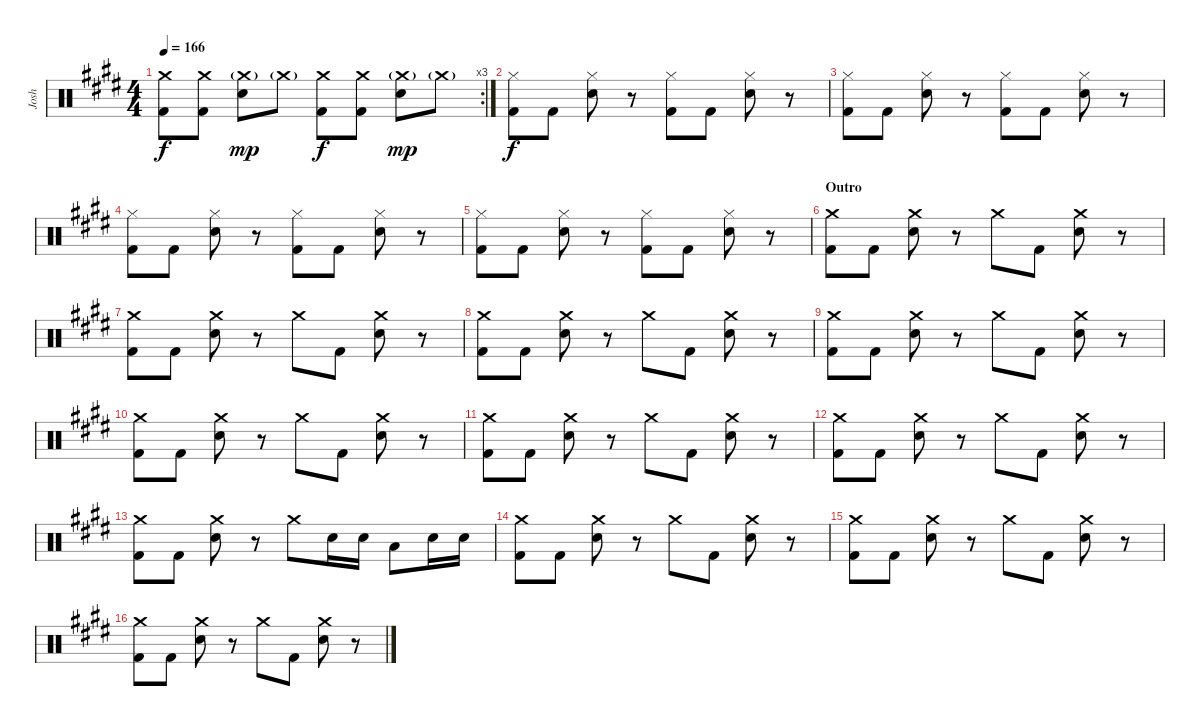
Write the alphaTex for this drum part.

\track ("Josh" "Josh") {instrument percussion}
\staff {score}
\articulation defaults
\rc 3
\ts (4 4)
\tempo 166
\clef neutral
\ks e
("Crash medium (hit)" "Kick (hit) 2").8{dy f} ("Crash medium (hit)" "Kick (hit) 2").8 ("Crash medium (hit)"{g} "Electric Snare (hit)").8{dy mp} "Crash medium (hit)"{g}.8 ("Crash medium (hit)" "Kick (hit) 2").8{dy f} ("Crash medium (hit)" "Kick (hit) 2").8 ("Crash medium (hit)"{g} "Electric Snare (hit)").8{dy mp} "Crash medium (hit)"{g}.8 |
("Hi-Hat (closed)" "Kick (hit) 2").8{dy f} "Kick (hit) 2".8 ("Hi-Hat (closed)" "Electric Snare (hit)").8 r.8 ("Hi-Hat (closed)" "Kick (hit) 2").8 "Kick (hit) 2".8 ("Hi-Hat (closed)" "Electric Snare (hit)").8 r.8 |
("Hi-Hat (closed)" "Kick (hit) 2").8 "Kick (hit) 2".8 ("Hi-Hat (closed)" "Electric Snare (hit)").8 r.8 ("Hi-Hat (closed)" "Kick (hit) 2").8 "Kick (hit) 2".8 ("Hi-Hat (closed)" "Electric Snare (hit)").8 r.8 |
("Hi-Hat (closed)" "Kick (hit) 2").8 "Kick (hit) 2".8 ("Hi-Hat (closed)" "Electric Snare (hit)").8 r.8 ("Hi-Hat (closed)" "Kick (hit) 2").8 "Kick (hit) 2".8 ("Hi-Hat (closed)" "Electric Snare (hit)").8 r.8 |
("Hi-Hat (closed)" "Kick (hit) 2").8 "Kick (hit) 2".8 ("Hi-Hat (closed)" "Electric Snare (hit)").8 r.8 ("Hi-Hat (closed)" "Kick (hit) 2").8 "Kick (hit) 2".8 ("Hi-Hat (closed)" "Electric Snare (hit)").8 r.8 |
\section ("" "Outro")
("Crash medium (hit)" "Kick (hit) 2").8 "Kick (hit) 2".8 ("Crash medium (hit)" "Electric Snare (hit)").8 r.8 "Crash medium (hit)".8 "Kick (hit) 2".8 ("Crash medium (hit)" "Electric Snare (hit)").8 r.8 |
("Crash medium (hit)" "Kick (hit) 2").8 "Kick (hit) 2".8 ("Crash medium (hit)" "Electric Snare (hit)").8 r.8 "Crash medium (hit)".8 "Kick (hit) 2".8 ("Crash medium (hit)" "Electric Snare (hit)").8 r.8 |
("Crash medium (hit)" "Kick (hit) 2").8 "Kick (hit) 2".8 ("Crash medium (hit)" "Electric Snare (hit)").8 r.8 "Crash medium (hit)".8 "Kick (hit) 2".8 ("Crash medium (hit)" "Electric Snare (hit)").8 r.8 |
("Crash medium (hit)" "Kick (hit) 2").8 "Kick (hit) 2".8 ("Crash medium (hit)" "Electric Snare (hit)").8 r.8 "Crash medium (hit)".8 "Kick (hit) 2".8 ("Crash medium (hit)" "Electric Snare (hit)").8 r.8 |
("Crash medium (hit)" "Kick (hit) 2").8 "Kick (hit) 2".8 ("Crash medium (hit)" "Electric Snare (hit)").8 r.8 "Crash medium (hit)".8 "Kick (hit) 2".8 ("Crash medium (hit)" "Electric Snare (hit)").8 r.8 |
("Crash medium (hit)" "Kick (hit) 2").8 "Kick (hit) 2".8 ("Crash medium (hit)" "Electric Snare (hit)").8 r.8 "Crash medium (hit)".8 "Kick (hit) 2".8 ("Crash medium (hit)" "Electric Snare (hit)").8 r.8 |
("Crash medium (hit)" "Kick (hit) 2").8 "Kick (hit) 2".8 ("Crash medium (hit)" "Electric Snare (hit)").8 r.8 "Crash medium (hit)".8 "Kick (hit) 2".8 ("Crash medium (hit)" "Electric Snare (hit)").8 r.8 |
("Crash medium (hit)" "Kick (hit) 2").8 "Kick (hit) 2".8 ("Crash medium (hit)" "Electric Snare (hit)").8 r.8 "Crash medium (hit)".8 "Electric Snare (hit)".16 "Electric Snare (hit)".16 "Low Floor Tom (hit)".8 "Electric Snare (hit)".16 "Electric Snare (hit)".16 |
("Crash medium (hit)" "Kick (hit) 2").8 "Kick (hit) 2".8 ("Crash medium (hit)" "Electric Snare (hit)").8 r.8 "Crash medium (hit)".8 "Kick (hit) 2".8 ("Crash medium (hit)" "Electric Snare (hit)").8 r.8 |
("Crash medium (hit)" "Kick (hit) 2").8 "Kick (hit) 2".8 ("Crash medium (hit)" "Electric Snare (hit)").8 r.8 "Crash medium (hit)".8 "Kick (hit) 2".8 ("Crash medium (hit)" "Electric Snare (hit)").8 r.8 |
("Crash medium (hit)" "Kick (hit) 2").8 "Kick (hit) 2".8 ("Crash medium (hit)" "Electric Snare (hit)").8 r.8 "Crash medium (hit)".8 "Kick (hit) 2".8 ("Crash medium (hit)" "Electric Snare (hit)").8 r.8
